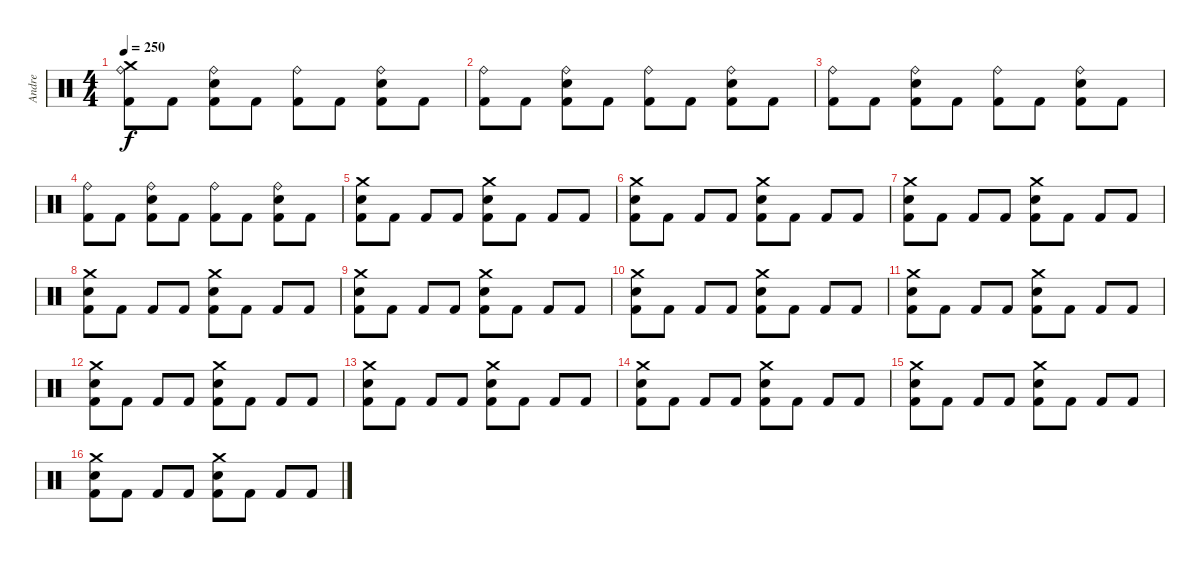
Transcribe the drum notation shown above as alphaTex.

\track ("Andre" "Andre") {instrument percussion}
\staff {score}
\articulation defaults
\ts (4 4)
\tempo 250
\clef neutral
\ks c
("Crash medium (hit)" "Ride (bell)" "Kick (hit) 2").8{dy f} "Kick (hit) 2".8 ("Ride (bell)" "Snare (hit) 2" "Kick (hit) 2").8 "Kick (hit) 2".8 ("Ride (bell)" "Kick (hit) 2").8 "Kick (hit) 2".8 ("Ride (bell)" "Snare (hit) 2" "Kick (hit) 2").8 "Kick (hit) 2".8 |
("Ride (bell)" "Kick (hit) 2").8 "Kick (hit) 2".8 ("Ride (bell)" "Snare (hit) 2" "Kick (hit) 2").8 "Kick (hit) 2".8 ("Ride (bell)" "Kick (hit) 2").8 "Kick (hit) 2".8 ("Ride (bell)" "Snare (hit) 2" "Kick (hit) 2").8 "Kick (hit) 2".8 |
("Ride (bell)" "Kick (hit) 2").8 "Kick (hit) 2".8 ("Ride (bell)" "Snare (hit) 2" "Kick (hit) 2").8 "Kick (hit) 2".8 ("Ride (bell)" "Kick (hit) 2").8 "Kick (hit) 2".8 ("Ride (bell)" "Snare (hit) 2" "Kick (hit) 2").8 "Kick (hit) 2".8 |
("Ride (bell)" "Kick (hit) 2").8 "Kick (hit) 2".8 ("Ride (bell)" "Snare (hit) 2" "Kick (hit) 2").8 "Kick (hit) 2".8 ("Ride (bell)" "Kick (hit) 2").8 "Kick (hit) 2".8 ("Ride (bell)" "Snare (hit) 2" "Kick (hit) 2").8 "Kick (hit) 2".8 |
("Crash medium (hit)" "Snare (hit) 2" "Kick (hit) 2").8 "Kick (hit) 2".8 "Kick (hit) 2".8 "Kick (hit) 2".8 ("Crash medium (hit)" "Snare (hit) 2" "Kick (hit) 2").8 "Kick (hit) 2".8 "Kick (hit) 2".8 "Kick (hit) 2".8 |
("Crash medium (hit)" "Snare (hit) 2" "Kick (hit) 2").8 "Kick (hit) 2".8 "Kick (hit) 2".8 "Kick (hit) 2".8 ("Crash medium (hit)" "Snare (hit) 2" "Kick (hit) 2").8 "Kick (hit) 2".8 "Kick (hit) 2".8 "Kick (hit) 2".8 |
("Crash medium (hit)" "Snare (hit) 2" "Kick (hit) 2").8 "Kick (hit) 2".8 "Kick (hit) 2".8 "Kick (hit) 2".8 ("Crash medium (hit)" "Snare (hit) 2" "Kick (hit) 2").8 "Kick (hit) 2".8 "Kick (hit) 2".8 "Kick (hit) 2".8 |
("Crash medium (hit)" "Snare (hit) 2" "Kick (hit) 2").8 "Kick (hit) 2".8 "Kick (hit) 2".8 "Kick (hit) 2".8 ("Crash medium (hit)" "Snare (hit) 2" "Kick (hit) 2").8 "Kick (hit) 2".8 "Kick (hit) 2".8 "Kick (hit) 2".8 |
("Crash medium (hit)" "Snare (hit) 2" "Kick (hit) 2").8 "Kick (hit) 2".8 "Kick (hit) 2".8 "Kick (hit) 2".8 ("Crash medium (hit)" "Snare (hit) 2" "Kick (hit) 2").8 "Kick (hit) 2".8 "Kick (hit) 2".8 "Kick (hit) 2".8 |
("Crash medium (hit)" "Snare (hit) 2" "Kick (hit) 2").8 "Kick (hit) 2".8 "Kick (hit) 2".8 "Kick (hit) 2".8 ("Crash medium (hit)" "Snare (hit) 2" "Kick (hit) 2").8 "Kick (hit) 2".8 "Kick (hit) 2".8 "Kick (hit) 2".8 |
("Crash medium (hit)" "Snare (hit) 2" "Kick (hit) 2").8 "Kick (hit) 2".8 "Kick (hit) 2".8 "Kick (hit) 2".8 ("Crash medium (hit)" "Snare (hit) 2" "Kick (hit) 2").8 "Kick (hit) 2".8 "Kick (hit) 2".8 "Kick (hit) 2".8 |
("Crash medium (hit)" "Snare (hit) 2" "Kick (hit) 2").8 "Kick (hit) 2".8 "Kick (hit) 2".8 "Kick (hit) 2".8 ("Crash medium (hit)" "Snare (hit) 2" "Kick (hit) 2").8 "Kick (hit) 2".8 "Kick (hit) 2".8 "Kick (hit) 2".8 |
("Crash medium (hit)" "Snare (hit) 2" "Kick (hit) 2").8 "Kick (hit) 2".8 "Kick (hit) 2".8 "Kick (hit) 2".8 ("Crash medium (hit)" "Snare (hit) 2" "Kick (hit) 2").8 "Kick (hit) 2".8 "Kick (hit) 2".8 "Kick (hit) 2".8 |
("Crash medium (hit)" "Snare (hit) 2" "Kick (hit) 2").8 "Kick (hit) 2".8 "Kick (hit) 2".8 "Kick (hit) 2".8 ("Crash medium (hit)" "Snare (hit) 2" "Kick (hit) 2").8 "Kick (hit) 2".8 "Kick (hit) 2".8 "Kick (hit) 2".8 |
("Crash medium (hit)" "Snare (hit) 2" "Kick (hit) 2").8 "Kick (hit) 2".8 "Kick (hit) 2".8 "Kick (hit) 2".8 ("Crash medium (hit)" "Snare (hit) 2" "Kick (hit) 2").8 "Kick (hit) 2".8 "Kick (hit) 2".8 "Kick (hit) 2".8 |
("Crash medium (hit)" "Snare (hit) 2" "Kick (hit) 2").8 "Kick (hit) 2".8 "Kick (hit) 2".8 "Kick (hit) 2".8 ("Crash medium (hit)" "Snare (hit) 2" "Kick (hit) 2").8 "Kick (hit) 2".8 "Kick (hit) 2".8 "Kick (hit) 2".8
